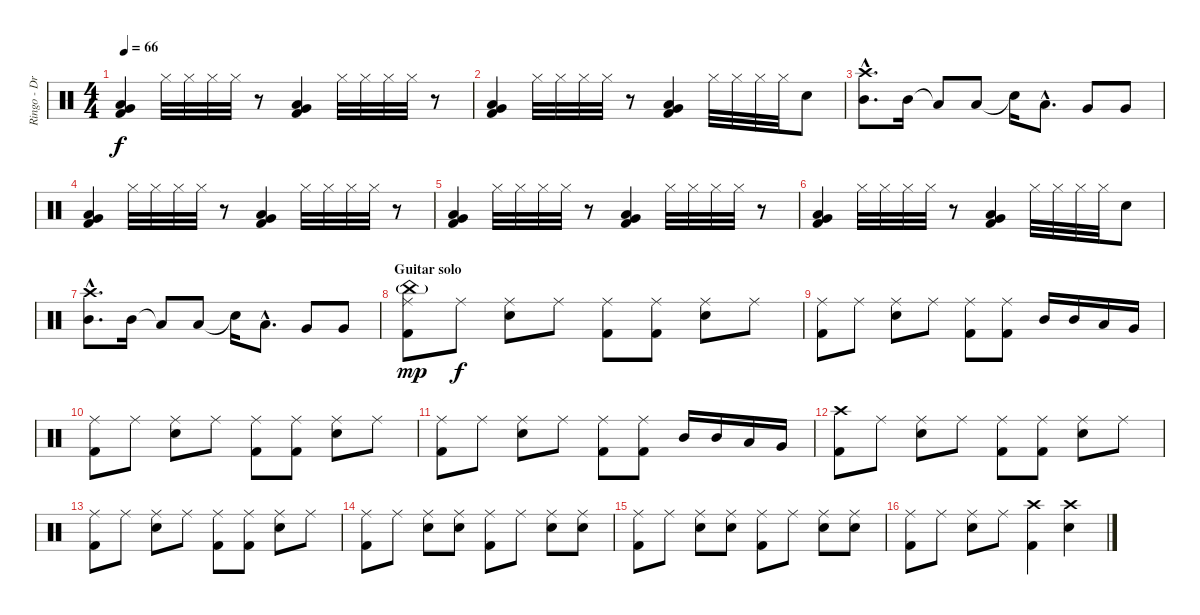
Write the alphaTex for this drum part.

\track ("Ringo - Drums" "Ringo - Dr") {instrument percussion}
\staff {score}
\articulation defaults
\ts (4 4)
\tempo 66
\clef neutral
\ks c
("Very Low Tom (hit)" "Low Tom (hit)" "Kick (hit) 2").4{dy f} "Hi-Hat (closed)".32 "Hi-Hat (closed)".32 "Hi-Hat (closed)".32 "Hi-Hat (closed)".32 r.8 ("Very Low Tom (hit)" "Low Tom (hit)" "Kick (hit) 2").4 "Hi-Hat (closed)".32 "Hi-Hat (closed)".32 "Hi-Hat (closed)".32 "Hi-Hat (closed)".32 r.8 |
("Very Low Tom (hit)" "Low Tom (hit)" "Kick (hit) 2").4 "Hi-Hat (closed)".32 "Hi-Hat (closed)".32 "Hi-Hat (closed)".32 "Hi-Hat (closed)".32 r.8 ("Very Low Tom (hit)" "Low Tom (hit)" "Kick (hit) 2").4 "Hi-Hat (closed)".32 "Hi-Hat (closed)".32 "Hi-Hat (closed)".32 "Hi-Hat (closed)".32 "Snare (hit) 2".8 |
("Crash high (hit)"{hac} "Mid Tom (hit)"{hac}).8{d} "Mid Tom (hit)".16 "Low Tom (hit)"{t}.8 "Low Tom (hit)".8 "Snare (hit)"{t}.16 "Low Tom (hit)"{hac}.8{d} "Very Low Tom (hit)".8 "Very Low Tom (hit)".8 |
("Very Low Tom (hit)" "Low Tom (hit)" "Kick (hit) 2").4 "Hi-Hat (closed)".32 "Hi-Hat (closed)".32 "Hi-Hat (closed)".32 "Hi-Hat (closed)".32 r.8 ("Very Low Tom (hit)" "Low Tom (hit)" "Kick (hit) 2").4 "Hi-Hat (closed)".32 "Hi-Hat (closed)".32 "Hi-Hat (closed)".32 "Hi-Hat (closed)".32 r.8 |
("Very Low Tom (hit)" "Low Tom (hit)" "Kick (hit) 2").4 "Hi-Hat (closed)".32 "Hi-Hat (closed)".32 "Hi-Hat (closed)".32 "Hi-Hat (closed)".32 r.8 ("Very Low Tom (hit)" "Low Tom (hit)" "Kick (hit) 2").4 "Hi-Hat (closed)".32 "Hi-Hat (closed)".32 "Hi-Hat (closed)".32 "Hi-Hat (closed)".32 r.8 |
("Very Low Tom (hit)" "Low Tom (hit)" "Kick (hit) 2").4 "Hi-Hat (closed)".32 "Hi-Hat (closed)".32 "Hi-Hat (closed)".32 "Hi-Hat (closed)".32 r.8 ("Very Low Tom (hit)" "Low Tom (hit)" "Kick (hit) 2").4 "Hi-Hat (closed)".32 "Hi-Hat (closed)".32 "Hi-Hat (closed)".32 "Hi-Hat (closed)".32 "Snare (hit) 2".8 |
("Crash high (hit)"{hac} "Mid Tom (hit)"{hac}).8{d} "Mid Tom (hit)".16 "Low Tom (hit)"{t}.8 "Low Tom (hit)".8 "Snare (hit)"{t}.16 "Low Tom (hit)"{hac}.8{d} "Very Low Tom (hit)".8 "Very Low Tom (hit)".8 |
\section ("" "Guitar solo")
("China (hit)"{g} "Ride (middle)" "Kick (hit) 2").8{dy mp} "Ride (middle)".8{dy f} ("Ride (middle)" "Snare (hit) 2").8 "Ride (middle)".8 ("Ride (middle)" "Kick (hit) 2").8 ("Ride (middle)" "Kick (hit) 2").8 ("Ride (middle)" "Snare (hit) 2").8 "Ride (middle)".8 |
("Ride (middle)" "Kick (hit) 2").8 "Ride (middle)".8 ("Ride (middle)" "Snare (hit) 2").8 "Ride (middle)".8 ("Ride (middle)" "Kick (hit) 2").8 ("Ride (middle)" "Kick (hit) 2").8 "Mid Tom (hit)".16 "Mid Tom (hit)".16 "Low Tom (hit)".16 "Very Low Tom (hit)".16 |
("Ride (middle)" "Kick (hit) 2").8 "Ride (middle)".8 ("Ride (middle)" "Snare (hit) 2").8 "Ride (middle)".8 ("Ride (middle)" "Kick (hit) 2").8 ("Ride (middle)" "Kick (hit) 2").8 ("Ride (middle)" "Snare (hit) 2").8 "Ride (middle)".8 |
("Ride (middle)" "Kick (hit) 2").8 "Ride (middle)".8 ("Ride (middle)" "Snare (hit) 2").8 "Ride (middle)".8 ("Ride (middle)" "Kick (hit) 2").8 ("Ride (middle)" "Kick (hit) 2").8 "Mid Tom (hit)".16 "Mid Tom (hit)".16 "Low Tom (hit)".16 "Very Low Tom (hit)".16 |
("Crash high (hit)" "Kick (hit) 2").8 "Ride (middle)".8 ("Ride (middle)" "Snare (hit) 2").8 "Ride (middle)".8 ("Ride (middle)" "Kick (hit) 2").8 ("Ride (middle)" "Kick (hit) 2").8 ("Ride (middle)" "Snare (hit) 2").8 "Ride (middle)".8 |
("Ride (middle)" "Kick (hit) 2").8 "Ride (middle)".8 ("Ride (middle)" "Snare (hit) 2").8 "Ride (middle)".8 ("Ride (middle)" "Kick (hit) 2").8 ("Ride (middle)" "Kick (hit) 2").8 ("Ride (middle)" "Snare (hit) 2").8 "Ride (middle)".8 |
("Ride (middle)" "Kick (hit) 2").8 "Ride (middle)".8 ("Ride (middle)" "Snare (hit) 2").8 ("Ride (middle)" "Snare (hit) 2").8 ("Ride (middle)" "Kick (hit) 2").8 "Ride (middle)".8 ("Ride (middle)" "Snare (hit) 2").8 ("Ride (middle)" "Snare (hit) 2").8 |
("Ride (middle)" "Kick (hit) 2").8 "Ride (middle)".8 ("Ride (middle)" "Snare (hit) 2").8 ("Ride (middle)" "Snare (hit) 2").8 ("Ride (middle)" "Kick (hit) 2").8 "Ride (middle)".8 ("Ride (middle)" "Snare (hit) 2").8 ("Ride (middle)" "Snare (hit) 2").8 |
("Ride (middle)" "Kick (hit) 2").8 "Ride (middle)".8 ("Ride (middle)" "Snare (hit) 2").8 "Ride (middle)".8 ("Crash high (hit)" "Kick (hit) 2").4 ("Crash high (hit)" "Snare (hit) 2").4
